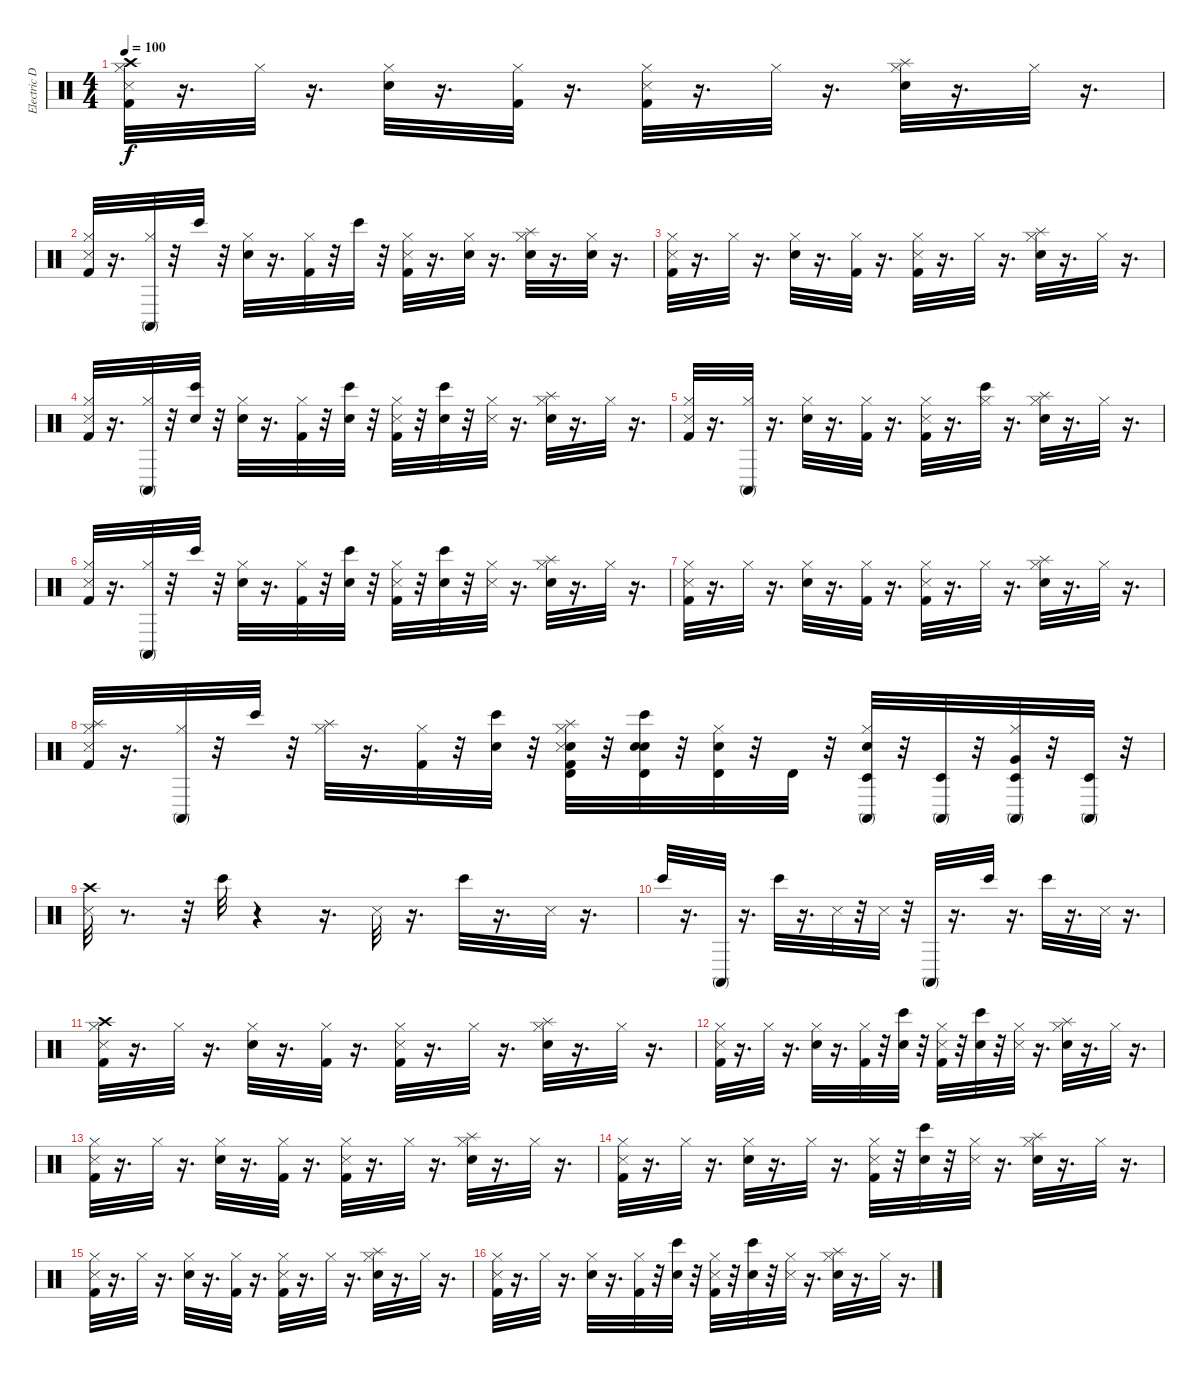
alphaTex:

\track ("Electric Drums" "Electric D") {instrument percussion}
\staff {score}
\articulation defaults
\ts (4 4)
\tempo 100
\clef neutral
\ks c
("Crash high (hit)" "Kick (hit) 2" "Hi-Hat (closed)" "Metronome (hit)").32{dy f} r.16{d} "Hi-Hat (closed)".32 r.16{d} ("Electric Snare (hit)" "Hi-Hat (closed)").32 r.16{d} ("Kick (hit) 2" "Hi-Hat (closed)").32 r.16{d} ("Kick (hit) 2" "Hi-Hat (closed)" "Metronome (hit)").32 r.16{d} "Hi-Hat (closed)".32 r.16{d} ("Electric Snare (hit)" "Hi-Hat (closed)" "Splash (hit)").32 r.16{d} "Hi-Hat (closed)".32 r.16{d} |
("Kick (hit) 2" "Hi-Hat (closed)" "Metronome (hit)").32 r.16{d} ("Hi-Hat (closed)" "Conga high (mute)").32 r.32 "Bongo High (hit)".32 r.32 ("Electric Snare (hit)" "Hi-Hat (closed)").32 r.16{d} ("Kick (hit) 2" "Hi-Hat (closed)").32 r.32 "Bongo High (hit)".32 r.32 ("Kick (hit) 2" "Hi-Hat (closed)" "Metronome (hit)").32 r.16{d} ("Snare (hit) 2" "Hi-Hat (closed)").32 r.16{d} ("Electric Snare (hit)" "Hi-Hat (closed)" "Splash (hit)").32 r.16{d} ("Snare (hit) 2" "Hi-Hat (closed)").32 r.16{d} |
("Kick (hit) 2" "Hi-Hat (closed)" "Metronome (hit)").32 r.16{d} "Hi-Hat (closed)".32 r.16{d} ("Electric Snare (hit)" "Hi-Hat (closed)").32 r.16{d} ("Kick (hit) 2" "Hi-Hat (closed)").32 r.16{d} ("Kick (hit) 2" "Hi-Hat (closed)" "Metronome (hit)").32 r.16{d} "Hi-Hat (closed)".32 r.16{d} ("Electric Snare (hit)" "Hi-Hat (closed)" "Splash (hit)").32 r.16{d} "Hi-Hat (closed)".32 r.16{d} |
("Kick (hit) 2" "Hi-Hat (closed)" "Metronome (hit)").32 r.16{d} ("Hi-Hat (closed)" "Conga high (mute)").32 r.32 ("Snare (hit)" "Bongo High (hit)").32 r.32 ("Electric Snare (hit)" "Hi-Hat (closed)").32 r.16{d} ("Kick (hit) 2" "Hi-Hat (closed)").32 r.32 ("Snare (hit)" "Bongo High (hit)").32 r.32 ("Kick (hit) 2" "Hi-Hat (closed)" "Metronome (hit)").32 r.32 ("Snare (hit)" "Bongo High (hit)").32 r.32 ("Hi-Hat (closed)" "Metronome (hit)").32 r.16{d} ("Electric Snare (hit)" "Hi-Hat (closed)" "Splash (hit)").32 r.16{d} "Hi-Hat (closed)".32 r.16{d} |
("Kick (hit) 2" "Hi-Hat (closed)" "Metronome (hit)").32 r.16{d} ("Hi-Hat (closed)" "Conga high (mute)").32 r.16{d} ("Electric Snare (hit)" "Hi-Hat (closed)").32 r.16{d} ("Kick (hit) 2" "Hi-Hat (closed)").32 r.16{d} ("Kick (hit) 2" "Hi-Hat (closed)" "Metronome (hit)").32 r.16{d} ("Hi-Hat (closed)" "Bongo High (hit)").32 r.16{d} ("Electric Snare (hit)" "Hi-Hat (closed)" "Splash (hit)").32 r.16{d} "Hi-Hat (closed)".32 r.16{d} |
("Kick (hit) 2" "Hi-Hat (closed)" "Metronome (hit)").32 r.16{d} ("Hi-Hat (closed)" "Conga high (mute)").32 r.32 "Bongo High (hit)".32 r.32 ("Electric Snare (hit)" "Hi-Hat (closed)").32 r.16{d} ("Kick (hit) 2" "Hi-Hat (closed)").32 r.32 ("Snare (hit)" "Bongo High (hit)").32 r.32 ("Kick (hit) 2" "Hi-Hat (closed)" "Metronome (hit)").32 r.32 ("Snare (hit)" "Bongo High (hit)").32 r.32 ("Hi-Hat (closed)" "Metronome (hit)").32 r.16{d} ("Electric Snare (hit)" "Hi-Hat (closed)" "Splash (hit)").32 r.16{d} "Hi-Hat (closed)".32 r.16{d} |
("Kick (hit) 2" "Hi-Hat (closed)" "Metronome (hit)").32 r.16{d} "Hi-Hat (closed)".32 r.16{d} ("Electric Snare (hit)" "Hi-Hat (closed)").32 r.16{d} ("Kick (hit) 2" "Hi-Hat (closed)").32 r.16{d} ("Kick (hit) 2" "Hi-Hat (closed)" "Metronome (hit)").32 r.16{d} "Hi-Hat (closed)".32 r.16{d} ("Electric Snare (hit)" "Hi-Hat (closed)" "Splash (hit)").32 r.16{d} "Hi-Hat (closed)".32 r.16{d} |
("Kick (hit) 2" "Hi-Hat (closed)" "Splash (hit)" "Metronome (hit)").32 r.16{d} ("Hi-Hat (closed)" "Conga high (mute)").32 r.32 "Bongo High (hit)".32 r.32 ("Hi-Hat (closed)" "Splash (hit)").32 r.16{d} ("Kick (hit) 2" "Hi-Hat (closed)").32 r.32 ("Snare (hit)" "Bongo High (hit)").32 r.32 ("Snare (hit) 2" "Kick (hit) 2" "Hi-Hat (closed)" "Splash (hit)" "Metronome (hit)" "Timbale high (hit)").32 r.32 ("Snare (hit) 2" "Snare (hit)" "Bongo High (hit)" "Timbale high (hit)").32 r.32 ("Snare (hit) 2" "Hi-Hat (closed)" "Timbale high (hit)").32 r.32 "Timbale high (hit)".32 r.32 ("Electric Snare (hit)" "Hi-Hat (closed)" "Conga high (mute)" "Timbale low (hit)").32 r.32 ("Conga high (mute)" "Timbale low (hit)").32 r.32 ("Very Low Tom (hit)" "Hi-Hat (closed)" "Conga high (mute)" "Timbale low (hit)").32 r.32 ("Conga high (mute)" "Timbale low (hit)").32 r.32 |
("Crash high (hit)" "Metronome (hit)").32 r.8{d} r.32 "Bongo High (hit)".32 r.4 r.16{d} "Metronome (hit)".32 r.16{d} "Bongo High (hit)".32 r.16{d} "Metronome (hit)".32 r.16{d} |
"Bongo High (hit)".32 r.16{d} "Conga high (mute)".32 r.16{d} "Bongo High (hit)".32 r.16{d} "Metronome (hit)".32 r.32 "Metronome (hit)".32 r.32 "Conga high (mute)".32 r.16{d} "Bongo High (hit)".32 r.16{d} "Bongo High (hit)".32 r.16{d} "Metronome (hit)".32 r.16{d} |
("Crash high (hit)" "Kick (hit) 2" "Hi-Hat (closed)" "Metronome (hit)").32 r.16{d} "Hi-Hat (closed)".32 r.16{d} ("Electric Snare (hit)" "Hi-Hat (closed)").32 r.16{d} ("Kick (hit) 2" "Hi-Hat (closed)").32 r.16{d} ("Kick (hit) 2" "Hi-Hat (closed)" "Metronome (hit)").32 r.16{d} "Hi-Hat (closed)".32 r.16{d} ("Electric Snare (hit)" "Hi-Hat (closed)" "Splash (hit)").32 r.16{d} "Hi-Hat (closed)".32 r.16{d} |
("Kick (hit) 2" "Hi-Hat (closed)" "Metronome (hit)").32 r.16{d} "Hi-Hat (closed)".32 r.16{d} ("Electric Snare (hit)" "Hi-Hat (closed)").32 r.16{d} ("Kick (hit) 2" "Hi-Hat (closed)").32 r.32 ("Snare (hit)" "Bongo High (hit)").32 r.32 ("Kick (hit) 2" "Hi-Hat (closed)" "Metronome (hit)").32 r.32 ("Snare (hit)" "Bongo High (hit)").32 r.32 ("Hi-Hat (closed)" "Metronome (hit)").32 r.16{d} ("Electric Snare (hit)" "Hi-Hat (closed)" "Splash (hit)").32 r.16{d} "Hi-Hat (closed)".32 r.16{d} |
("Kick (hit) 2" "Hi-Hat (closed)" "Metronome (hit)").32 r.16{d} "Hi-Hat (closed)".32 r.16{d} ("Electric Snare (hit)" "Hi-Hat (closed)").32 r.16{d} ("Kick (hit) 2" "Hi-Hat (closed)").32 r.16{d} ("Kick (hit) 2" "Hi-Hat (closed)" "Metronome (hit)").32 r.16{d} "Hi-Hat (closed)".32 r.16{d} ("Electric Snare (hit)" "Hi-Hat (closed)" "Splash (hit)").32 r.16{d} "Hi-Hat (closed)".32 r.16{d} |
("Kick (hit) 2" "Hi-Hat (closed)" "Metronome (hit)").32 r.16{d} "Hi-Hat (closed)".32 r.16{d} ("Electric Snare (hit)" "Hi-Hat (closed)").32 r.16{d} "Hi-Hat (closed)".32 r.16{d} ("Kick (hit) 2" "Hi-Hat (closed)" "Metronome (hit)").32 r.32 ("Snare (hit)" "Bongo High (hit)").32 r.32 ("Hi-Hat (closed)" "Metronome (hit)").32 r.16{d} ("Electric Snare (hit)" "Hi-Hat (closed)" "Splash (hit)").32 r.16{d} "Hi-Hat (closed)".32 r.16{d} |
("Kick (hit) 2" "Hi-Hat (closed)" "Metronome (hit)").32 r.16{d} "Hi-Hat (closed)".32 r.16{d} ("Electric Snare (hit)" "Hi-Hat (closed)").32 r.16{d} ("Kick (hit) 2" "Hi-Hat (closed)").32 r.16{d} ("Kick (hit) 2" "Hi-Hat (closed)" "Metronome (hit)").32 r.16{d} "Hi-Hat (closed)".32 r.16{d} ("Electric Snare (hit)" "Hi-Hat (closed)" "Splash (hit)").32 r.16{d} "Hi-Hat (closed)".32 r.16{d} |
("Kick (hit) 2" "Hi-Hat (closed)" "Metronome (hit)").32 r.16{d} "Hi-Hat (closed)".32 r.16{d} ("Electric Snare (hit)" "Hi-Hat (closed)").32 r.16{d} ("Kick (hit) 2" "Hi-Hat (closed)").32 r.32 ("Snare (hit)" "Bongo High (hit)").32 r.32 ("Kick (hit) 2" "Hi-Hat (closed)" "Metronome (hit)").32 r.32 ("Snare (hit)" "Bongo High (hit)").32 r.32 ("Hi-Hat (closed)" "Metronome (hit)").32 r.16{d} ("Electric Snare (hit)" "Hi-Hat (closed)" "Splash (hit)").32 r.16{d} "Hi-Hat (closed)".32 r.16{d}
